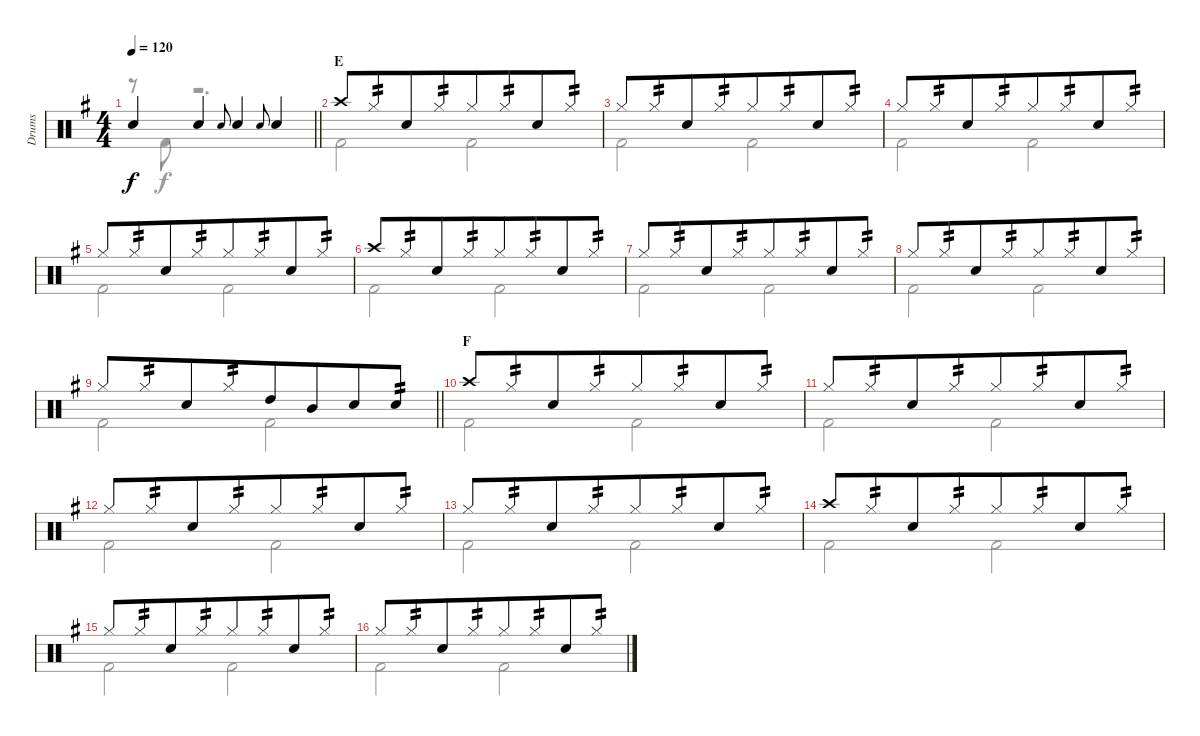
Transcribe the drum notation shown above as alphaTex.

\track ("Drums" "Drums") {instrument percussion}
\staff {score}
\articulation defaults
\voice
\ts (4 4)
\tempo 120
\clef neutral
\barLineRight lightlight
\ks g "Snare (hit)"{t}.4{dy f beam merge} "Snare (hit) 2".4 "Electric Snare (hit)".8{gr onbeat} "Snare (hit) 2".4 "Electric Snare (hit)".8{gr onbeat} "Snare (hit) 2".4
|
\section ("" "E")
"Crash high (hit)".8 "Hi-Hat (closed)".8{tp 2 beam merge} "Snare (hit) 2".8 "Hi-Hat (closed)".8{tp 2 beam merge} "Hi-Hat (closed)".8 "Hi-Hat (closed)".8{tp 2 beam merge} "Snare (hit) 2".8 "Hi-Hat (closed)".8{tp 2} |
"Hi-Hat (closed)".8 "Hi-Hat (closed)".8{tp 2 beam merge} "Snare (hit) 2".8 "Hi-Hat (closed)".8{tp 2 beam merge} "Hi-Hat (closed)".8 "Hi-Hat (closed)".8{tp 2 beam merge} "Snare (hit) 2".8 "Hi-Hat (closed)".8{tp 2} |
"Hi-Hat (closed)".8 "Hi-Hat (closed)".8{tp 2 beam merge} "Snare (hit) 2".8 "Hi-Hat (closed)".8{tp 2 beam merge} "Hi-Hat (closed)".8 "Hi-Hat (closed)".8{tp 2 beam merge} "Snare (hit) 2".8 "Hi-Hat (closed)".8{tp 2} |
"Hi-Hat (closed)".8 "Hi-Hat (closed)".8{tp 2 beam merge} "Snare (hit) 2".8 "Hi-Hat (closed)".8{tp 2 beam merge} "Hi-Hat (closed)".8 "Hi-Hat (closed)".8{tp 2 beam merge} "Snare (hit) 2".8 "Hi-Hat (closed)".8{tp 2} |
"Crash high (hit)".8 "Hi-Hat (closed)".8{tp 2 beam merge} "Snare (hit) 2".8 "Hi-Hat (closed)".8{tp 2 beam merge} "Hi-Hat (closed)".8 "Hi-Hat (closed)".8{tp 2 beam merge} "Snare (hit) 2".8 "Hi-Hat (closed)".8{tp 2} |
"Hi-Hat (closed)".8 "Hi-Hat (closed)".8{tp 2 beam merge} "Snare (hit) 2".8 "Hi-Hat (closed)".8{tp 2 beam merge} "Hi-Hat (closed)".8 "Hi-Hat (closed)".8{tp 2 beam merge} "Snare (hit) 2".8 "Hi-Hat (closed)".8{tp 2} |
"Hi-Hat (closed)".8 "Hi-Hat (closed)".8{tp 2 beam merge} "Snare (hit) 2".8 "Hi-Hat (closed)".8{tp 2 beam merge} "Hi-Hat (closed)".8 "Hi-Hat (closed)".8{tp 2 beam merge} "Snare (hit) 2".8 "Hi-Hat (closed)".8{tp 2} |
\barLineRight lightlight "Hi-Hat (closed)".8 "Hi-Hat (closed)".8{tp 2 beam merge} "Snare (hit) 2".8 "Hi-Hat (closed)".8{tp 2 beam merge} "High Tom (hit)".8 "Mid Tom (hit)".8{beam merge} "Electric Snare (hit)".8 "Snare (hit) 2".8{tp 2}
|
\section ("" "F")
"Crash high (hit)".8 "Hi-Hat (closed)".8{tp 2 beam merge} "Snare (hit) 2".8 "Hi-Hat (closed)".8{tp 2 beam merge} "Hi-Hat (closed)".8 "Hi-Hat (closed)".8{tp 2 beam merge} "Snare (hit) 2".8 "Hi-Hat (closed)".8{tp 2} |
"Hi-Hat (closed)".8 "Hi-Hat (closed)".8{tp 2 beam merge} "Snare (hit) 2".8 "Hi-Hat (closed)".8{tp 2 beam merge} "Hi-Hat (closed)".8 "Hi-Hat (closed)".8{tp 2 beam merge} "Snare (hit) 2".8 "Hi-Hat (closed)".8{tp 2} |
"Hi-Hat (closed)".8 "Hi-Hat (closed)".8{tp 2 beam merge} "Snare (hit) 2".8 "Hi-Hat (closed)".8{tp 2 beam merge} "Hi-Hat (closed)".8 "Hi-Hat (closed)".8{tp 2 beam merge} "Snare (hit) 2".8 "Hi-Hat (closed)".8{tp 2} |
"Hi-Hat (closed)".8 "Hi-Hat (closed)".8{tp 2 beam merge} "Snare (hit) 2".8 "Hi-Hat (closed)".8{tp 2 beam merge} "Hi-Hat (closed)".8 "Hi-Hat (closed)".8{tp 2 beam merge} "Snare (hit) 2".8 "Hi-Hat (closed)".8{tp 2} |
"Crash high (hit)".8 "Hi-Hat (closed)".8{tp 2 beam merge} "Snare (hit) 2".8 "Hi-Hat (closed)".8{tp 2 beam merge} "Hi-Hat (closed)".8 "Hi-Hat (closed)".8{tp 2 beam merge} "Snare (hit) 2".8 "Hi-Hat (closed)".8{tp 2} |
"Hi-Hat (closed)".8 "Hi-Hat (closed)".8{tp 2 beam merge} "Snare (hit) 2".8 "Hi-Hat (closed)".8{tp 2 beam merge} "Hi-Hat (closed)".8 "Hi-Hat (closed)".8{tp 2 beam merge} "Snare (hit) 2".8 "Hi-Hat (closed)".8{tp 2} |
"Hi-Hat (closed)".8 "Hi-Hat (closed)".8{tp 2 beam merge} "Snare (hit) 2".8 "Hi-Hat (closed)".8{tp 2 beam merge} "Hi-Hat (closed)".8 "Hi-Hat (closed)".8{tp 2 beam merge} "Snare (hit) 2".8 "Hi-Hat (closed)".8{tp 2}
\voice
\clef neutral
\ottava regular
\simile none
\barLineRight lightlight
\ks g
r.8{dy f} "Kick (hit) 2".8 r.2{d} |
"Kick (hit) 2".2 "Kick (hit) 2".2 |
"Kick (hit) 2".2 "Kick (hit) 2".2 |
"Kick (hit) 2".2 "Kick (hit) 2".2 |
"Kick (hit) 2".2 "Kick (hit) 2".2 |
"Kick (hit) 2".2 "Kick (hit) 2".2 |
"Kick (hit) 2".2 "Kick (hit) 2".2 |
"Kick (hit) 2".2 "Kick (hit) 2".2 |
\barLineRight lightlight "Kick (hit) 2".2 "Kick (hit) 2".2
|
"Kick (hit) 2".2 "Kick (hit) 2".2 |
"Kick (hit) 2".2 "Kick (hit) 2".2 |
"Kick (hit) 2".2 "Kick (hit) 2".2 |
"Kick (hit) 2".2 "Kick (hit) 2".2 |
"Kick (hit) 2".2 "Kick (hit) 2".2 |
"Kick (hit) 2".2 "Kick (hit) 2".2 |
"Kick (hit) 2".2 "Kick (hit) 2".2
